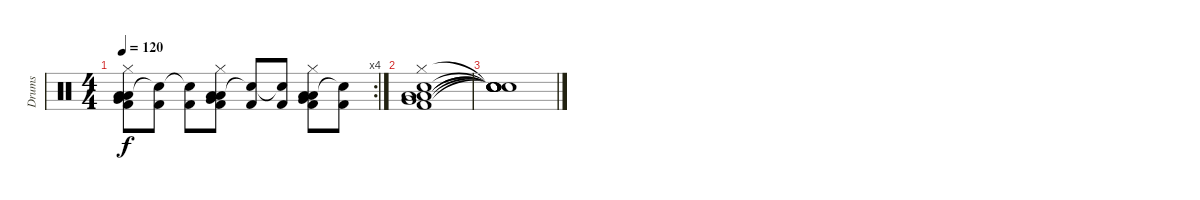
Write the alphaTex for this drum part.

\track ("Drums" "Drums") {instrument percussion}
\staff {score}
\articulation defaults
\rc 4
\ts (4 4)
\tempo 120
\clef neutral
\ks c
("Low Floor Tom (hit)" "Low Tom (hit)" "Kick (hit) 2" "Very Low Tom (hit)" "Hi-Hat (closed)").8{dy f} ("Kick (hit) 2" "Snare (hit)"{t}).8 ("Kick (hit) 2" "Snare (hit)"{t}).8 ("Low Floor Tom (hit)" "Low Tom (hit)" "Kick (hit) 2" "Very Low Tom (hit)" "Hi-Hat (closed)").8 ("Kick (hit) 2" "Snare (hit)"{t}).8 ("Kick (hit) 2" "Snare (hit)"{t}).8 ("Low Floor Tom (hit)" "Low Tom (hit)" "Kick (hit) 2" "Very Low Tom (hit)" "Hi-Hat (closed)").8 ("Kick (hit) 2" "Snare (hit)"{t}).8 |
("Kick (hit) 2" "Low Floor Tom (hit)" "Hi-Hat (closed)" "Low Tom (hit)" "Very Low Tom (hit)" "Snare (hit) 2").1 |
("Snare (hit)"{t} "Snare (hit)"{t} "Snare (hit)"{t} "Snare (hit)"{t} "Snare (hit)"{t} "Snare (hit)"{t}).1
